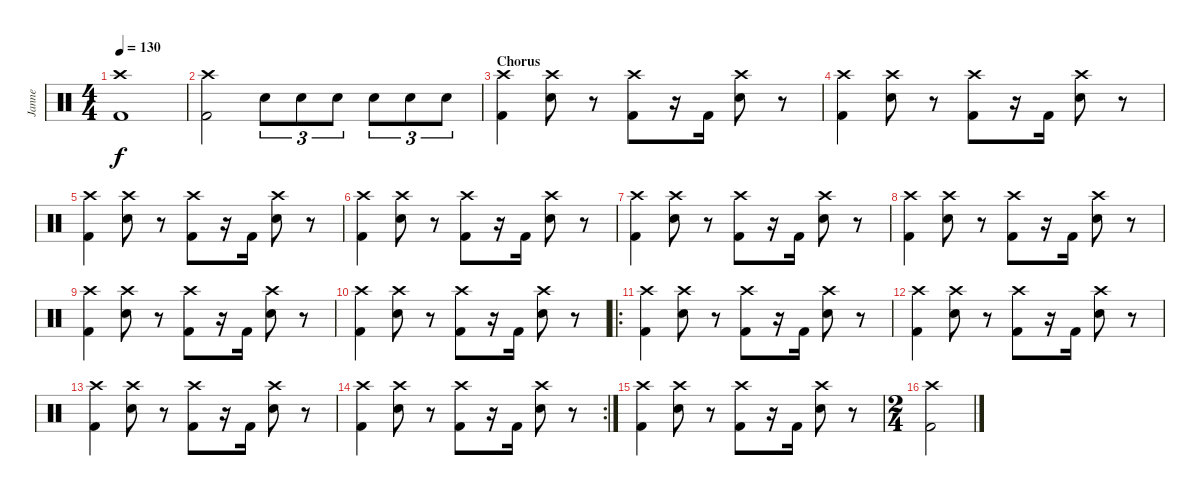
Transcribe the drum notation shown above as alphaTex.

\track ("Janne" "Janne") {instrument percussion}
\staff {score}
\articulation defaults
\ts (4 4)
\tempo 130
\clef neutral
\ks c
("Crash high (hit)" "Kick (hit) 2").1{dy f} |
("Crash high (hit)" "Kick (hit) 2").2 "Electric Snare (hit)".8{tu (3 2)} "Electric Snare (hit)".8{tu (3 2)} "Electric Snare (hit)".8{tu (3 2)} "Electric Snare (hit)".8{tu (3 2)} "Electric Snare (hit)".8{tu (3 2)} "Electric Snare (hit)".8{tu (3 2)} |
\section ("" "Chorus")
("Crash high (hit)" "Kick (hit) 2").4 ("Crash high (hit)" "Electric Snare (hit)").8 r.8 ("Crash high (hit)" "Kick (hit) 2").8 r.16 "Kick (hit) 2".16 ("Crash high (hit)" "Electric Snare (hit)").8 r.8 |
("Crash high (hit)" "Kick (hit) 2").4 ("Crash high (hit)" "Electric Snare (hit)").8 r.8 ("Crash high (hit)" "Kick (hit) 2").8 r.16 "Kick (hit) 2".16 ("Crash high (hit)" "Electric Snare (hit)").8 r.8 |
("Crash high (hit)" "Kick (hit) 2").4 ("Crash high (hit)" "Electric Snare (hit)").8 r.8 ("Crash high (hit)" "Kick (hit) 2").8 r.16 "Kick (hit) 2".16 ("Crash high (hit)" "Electric Snare (hit)").8 r.8 |
("Crash high (hit)" "Kick (hit) 2").4 ("Crash high (hit)" "Electric Snare (hit)").8 r.8 ("Crash high (hit)" "Kick (hit) 2").8 r.16 "Kick (hit) 2".16 ("Crash high (hit)" "Electric Snare (hit)").8 r.8 |
("Crash high (hit)" "Kick (hit) 2").4 ("Crash high (hit)" "Electric Snare (hit)").8 r.8 ("Crash high (hit)" "Kick (hit) 2").8 r.16 "Kick (hit) 2".16 ("Crash high (hit)" "Electric Snare (hit)").8 r.8 |
("Crash high (hit)" "Kick (hit) 2").4 ("Crash high (hit)" "Electric Snare (hit)").8 r.8 ("Crash high (hit)" "Kick (hit) 2").8 r.16 "Kick (hit) 2".16 ("Crash high (hit)" "Electric Snare (hit)").8 r.8 |
("Crash high (hit)" "Kick (hit) 2").4 ("Crash high (hit)" "Electric Snare (hit)").8 r.8 ("Crash high (hit)" "Kick (hit) 2").8 r.16 "Kick (hit) 2".16 ("Crash high (hit)" "Electric Snare (hit)").8 r.8 |
("Crash high (hit)" "Kick (hit) 2").4 ("Crash high (hit)" "Electric Snare (hit)").8 r.8 ("Crash high (hit)" "Kick (hit) 2").8 r.16 "Kick (hit) 2".16 ("Crash high (hit)" "Electric Snare (hit)").8 r.8 |
\ro
("Crash high (hit)" "Kick (hit) 2").4 ("Crash high (hit)" "Electric Snare (hit)").8 r.8 ("Crash high (hit)" "Kick (hit) 2").8 r.16 "Kick (hit) 2".16 ("Crash high (hit)" "Electric Snare (hit)").8 r.8 |
("Crash high (hit)" "Kick (hit) 2").4 ("Crash high (hit)" "Electric Snare (hit)").8 r.8 ("Crash high (hit)" "Kick (hit) 2").8 r.16 "Kick (hit) 2".16 ("Crash high (hit)" "Electric Snare (hit)").8 r.8 |
("Crash high (hit)" "Kick (hit) 2").4 ("Crash high (hit)" "Electric Snare (hit)").8 r.8 ("Crash high (hit)" "Kick (hit) 2").8 r.16 "Kick (hit) 2".16 ("Crash high (hit)" "Electric Snare (hit)").8 r.8 |
\rc 2
("Crash high (hit)" "Kick (hit) 2").4 ("Crash high (hit)" "Electric Snare (hit)").8 r.8 ("Crash high (hit)" "Kick (hit) 2").8 r.16 "Kick (hit) 2".16 ("Crash high (hit)" "Electric Snare (hit)").8 r.8 |
("Crash high (hit)" "Kick (hit) 2").4 ("Crash high (hit)" "Electric Snare (hit)").8 r.8 ("Crash high (hit)" "Kick (hit) 2").8 r.16 "Kick (hit) 2".16 ("Crash high (hit)" "Electric Snare (hit)").8 r.8 |
\ts (2 4)
("Crash high (hit)" "Kick (hit) 2").2
